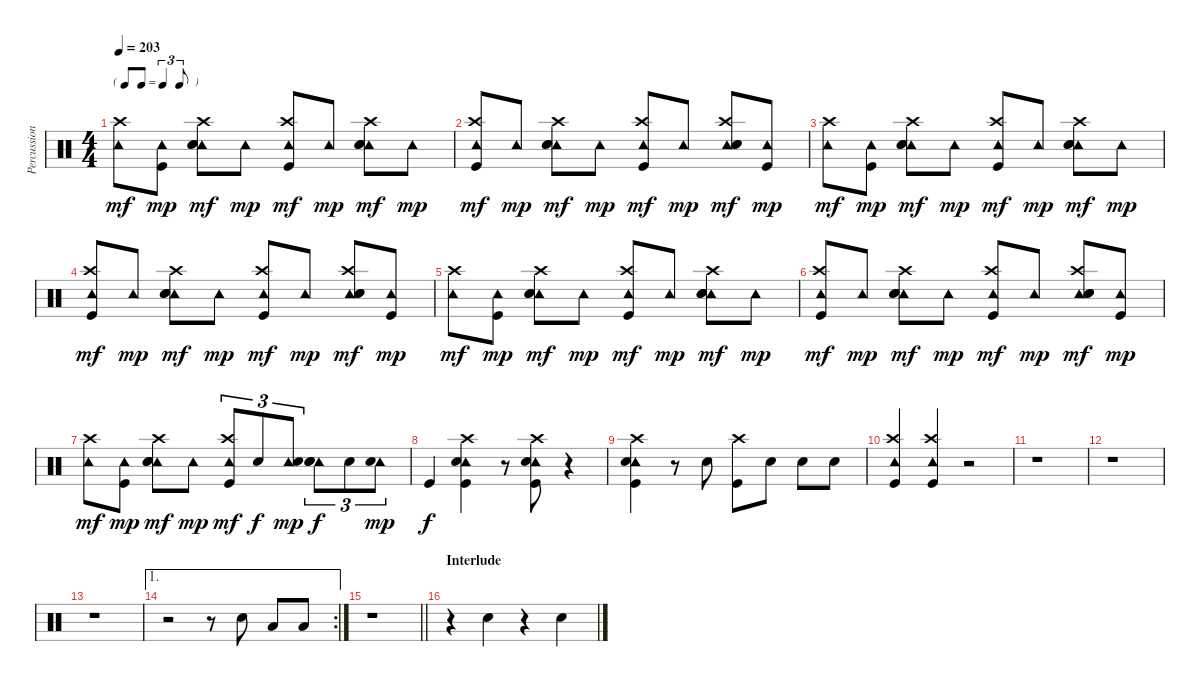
\track ("Percussion" "Percussion") {instrument percussion}
\staff {score}
\articulation defaults
\ts (4 4)
\tf triplet8th
\tempo 203
\clef neutral
\ks c
("Tambourine (hit)" "Crash high (hit)").8{dy mf} ("Tambourine (hit)" "Kick (hit)").8{dy mp} ("Tambourine (hit)" "Crash high (hit)" "Hand Clap (hit)" "Snare (hit) 2").8{dy mf} "Tambourine (hit)".8{dy mp} ("Tambourine (hit)" "Crash high (hit)" "Kick (hit)").8{dy mf} "Tambourine (hit)".8{dy mp} ("Tambourine (hit)" "Crash high (hit)" "Hand Clap (hit)" "Snare (hit) 2").8{dy mf} "Tambourine (hit)".8{dy mp} |
("Tambourine (hit)" "Crash high (hit)" "Kick (hit)").8{dy mf} "Tambourine (hit)".8{dy mp} ("Tambourine (hit)" "Crash high (hit)" "Hand Clap (hit)" "Snare (hit) 2").8{dy mf} "Tambourine (hit)".8{dy mp} ("Tambourine (hit)" "Crash high (hit)" "Kick (hit)").8{dy mf} "Tambourine (hit)".8{dy mp} ("Tambourine (hit)" "Crash high (hit)" "Hand Clap (hit)" "Snare (hit) 2").8{dy mf} ("Tambourine (hit)" "Kick (hit)").8{dy mp} |
("Tambourine (hit)" "Crash high (hit)").8{dy mf} ("Tambourine (hit)" "Kick (hit)").8{dy mp} ("Tambourine (hit)" "Crash high (hit)" "Hand Clap (hit)" "Snare (hit) 2").8{dy mf} "Tambourine (hit)".8{dy mp} ("Tambourine (hit)" "Crash high (hit)" "Kick (hit)").8{dy mf} "Tambourine (hit)".8{dy mp} ("Tambourine (hit)" "Crash high (hit)" "Hand Clap (hit)" "Snare (hit) 2").8{dy mf} "Tambourine (hit)".8{dy mp} |
("Tambourine (hit)" "Crash high (hit)" "Kick (hit)").8{dy mf} "Tambourine (hit)".8{dy mp} ("Tambourine (hit)" "Crash high (hit)" "Hand Clap (hit)" "Snare (hit) 2").8{dy mf} "Tambourine (hit)".8{dy mp} ("Tambourine (hit)" "Crash high (hit)" "Kick (hit)").8{dy mf} "Tambourine (hit)".8{dy mp} ("Tambourine (hit)" "Crash high (hit)" "Hand Clap (hit)" "Snare (hit) 2").8{dy mf} ("Tambourine (hit)" "Kick (hit)").8{dy mp} |
("Tambourine (hit)" "Crash high (hit)").8{dy mf} ("Tambourine (hit)" "Kick (hit)").8{dy mp} ("Tambourine (hit)" "Crash high (hit)" "Hand Clap (hit)" "Snare (hit) 2").8{dy mf} "Tambourine (hit)".8{dy mp} ("Tambourine (hit)" "Crash high (hit)" "Kick (hit)").8{dy mf} "Tambourine (hit)".8{dy mp} ("Tambourine (hit)" "Crash high (hit)" "Hand Clap (hit)" "Snare (hit) 2").8{dy mf} "Tambourine (hit)".8{dy mp} |
("Tambourine (hit)" "Crash high (hit)" "Kick (hit)").8{dy mf} "Tambourine (hit)".8{dy mp} ("Tambourine (hit)" "Crash high (hit)" "Hand Clap (hit)" "Snare (hit) 2").8{dy mf} "Tambourine (hit)".8{dy mp} ("Tambourine (hit)" "Crash high (hit)" "Kick (hit)").8{dy mf} "Tambourine (hit)".8{dy mp} ("Tambourine (hit)" "Crash high (hit)" "Hand Clap (hit)" "Snare (hit) 2").8{dy mf} ("Tambourine (hit)" "Kick (hit)").8{dy mp} |
("Tambourine (hit)" "Crash high (hit)").8{dy mf} ("Tambourine (hit)" "Kick (hit)").8{dy mp} ("Tambourine (hit)" "Crash high (hit)" "Hand Clap (hit)" "Snare (hit) 2").8{dy mf} "Tambourine (hit)".8{dy mp} ("Tambourine (hit)" "Crash high (hit)" "Kick (hit)").8{tu (3 2) dy mf} "Snare (hit) 2".8{tu (3 2) dy f} ("Tambourine (hit)" "Snare (hit) 2").8{tu (3 2) dy mp} ("Tambourine (hit)" "Hand Clap (hit)" "Snare (hit) 2").8{tu (3 2) dy f} "Snare (hit) 2".8{tu (3 2)} ("Tambourine (hit)" "Snare (hit) 2").8{tu (3 2) dy mp} |
"Kick (hit)".4{dy f} ("Tambourine (hit)" "Crash high (hit)" "Snare (hit) 2" "Kick (hit)").4 r.8 ("Tambourine (hit)" "Crash high (hit)" "Snare (hit) 2" "Kick (hit)").8 r.4 |
("Tambourine (hit)" "Crash high (hit)" "Snare (hit) 2" "Kick (hit)").4 r.8 "Snare (hit) 2".8 ("Crash high (hit)" "Kick (hit)").8 "Snare (hit) 2".8 "Snare (hit) 2".8 "Snare (hit) 2".8 |
("Tambourine (hit)" "Crash high (hit)" "Kick (hit)").4 ("Tambourine (hit)" "Crash high (hit)" "Kick (hit)").4 r.2 |
r.1 |
r.1 |
r.1 |
\ae 1
\rc 2
r.2 r.8 "Snare (hit) 2".8 "Low Floor Tom (hit)".8 "Low Floor Tom (hit)".8 |
\barLineRight lightlight
r.1 |
\section ("" "Interlude")
r.4 "Hand Clap (hit)".4 r.4 "Hand Clap (hit)".4
